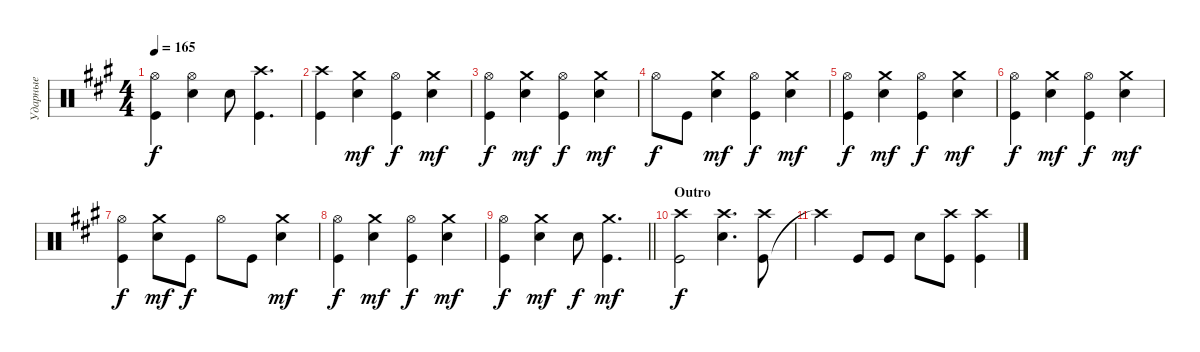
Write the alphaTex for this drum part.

\track ("Ударные" "Ударные") {instrument percussion}
\staff {score}
\articulation defaults
\ts (4 4)
\tempo 165
\clef neutral
\ks f#minor
("Kick (hit)" "Hi-Hat (open)").4{dy f} ("Snare (hit) 2" "Hi-Hat (open)").4 "Snare (hit) 2".8 ("Crash high (hit)" "Kick (hit)").4{d} |
("Kick (hit)" "Crash high (hit)").4 ("Crash medium (hit)" "Snare (hit) 2").4{dy mf} ("Hi-Hat (open)" "Kick (hit)").4{dy f} ("Crash medium (hit)" "Snare (hit) 2").4{dy mf} |
("Kick (hit)" "Hi-Hat (open)").4{dy f} ("Crash medium (hit)" "Snare (hit) 2").4{dy mf} ("Hi-Hat (open)" "Kick (hit)").4{dy f} ("Crash medium (hit)" "Snare (hit) 2").4{dy mf} |
"Hi-Hat (open)".8{dy f} "Kick (hit)".8 ("Crash medium (hit)" "Snare (hit) 2").4{dy mf} ("Hi-Hat (open)" "Kick (hit)").4{dy f} ("Crash medium (hit)" "Snare (hit) 2").4{dy mf} |
("Kick (hit)" "Hi-Hat (open)").4{dy f} ("Crash medium (hit)" "Snare (hit) 2").4{dy mf} ("Hi-Hat (open)" "Kick (hit)").4{dy f} ("Crash medium (hit)" "Snare (hit) 2").4{dy mf} |
("Kick (hit)" "Hi-Hat (open)").4{dy f} ("Crash medium (hit)" "Snare (hit) 2").4{dy mf} ("Hi-Hat (open)" "Kick (hit)").4{dy f} ("Crash medium (hit)" "Snare (hit) 2").4{dy mf} |
("Kick (hit)" "Hi-Hat (open)").4{dy f} ("Crash medium (hit)" "Snare (hit) 2").8{dy mf} "Kick (hit)".8{dy f} "Hi-Hat (open)".8 "Kick (hit)".8 ("Crash medium (hit)" "Snare (hit) 2").4{dy mf} |
("Kick (hit)" "Hi-Hat (open)").4{dy f} ("Crash medium (hit)" "Snare (hit) 2").4{dy mf} ("Hi-Hat (open)" "Kick (hit)").4{dy f} ("Crash medium (hit)" "Snare (hit) 2").4{dy mf} |
\barLineRight lightlight
("Kick (hit)" "Hi-Hat (open)").4{dy f} ("Crash medium (hit)" "Snare (hit) 2").4{dy mf} "Snare (hit) 2".8{dy f} ("Crash medium (hit)" "Kick (hit)").4{d dy mf} |
\section ("" "Outro")
("Kick (hit)" "Crash high (hit)").2{dy f} ("Snare (hit) 2" "Crash high (hit)").4{d} ("Kick (hit)" "Crash high (hit)").8 |
"Crash high (hit)"{t}.4 "Kick (hit)".8 "Kick (hit)".8 "Snare (hit) 2".8 ("Kick (hit)" "Crash high (hit)").8 ("Kick (hit)" "Crash high (hit)").4
